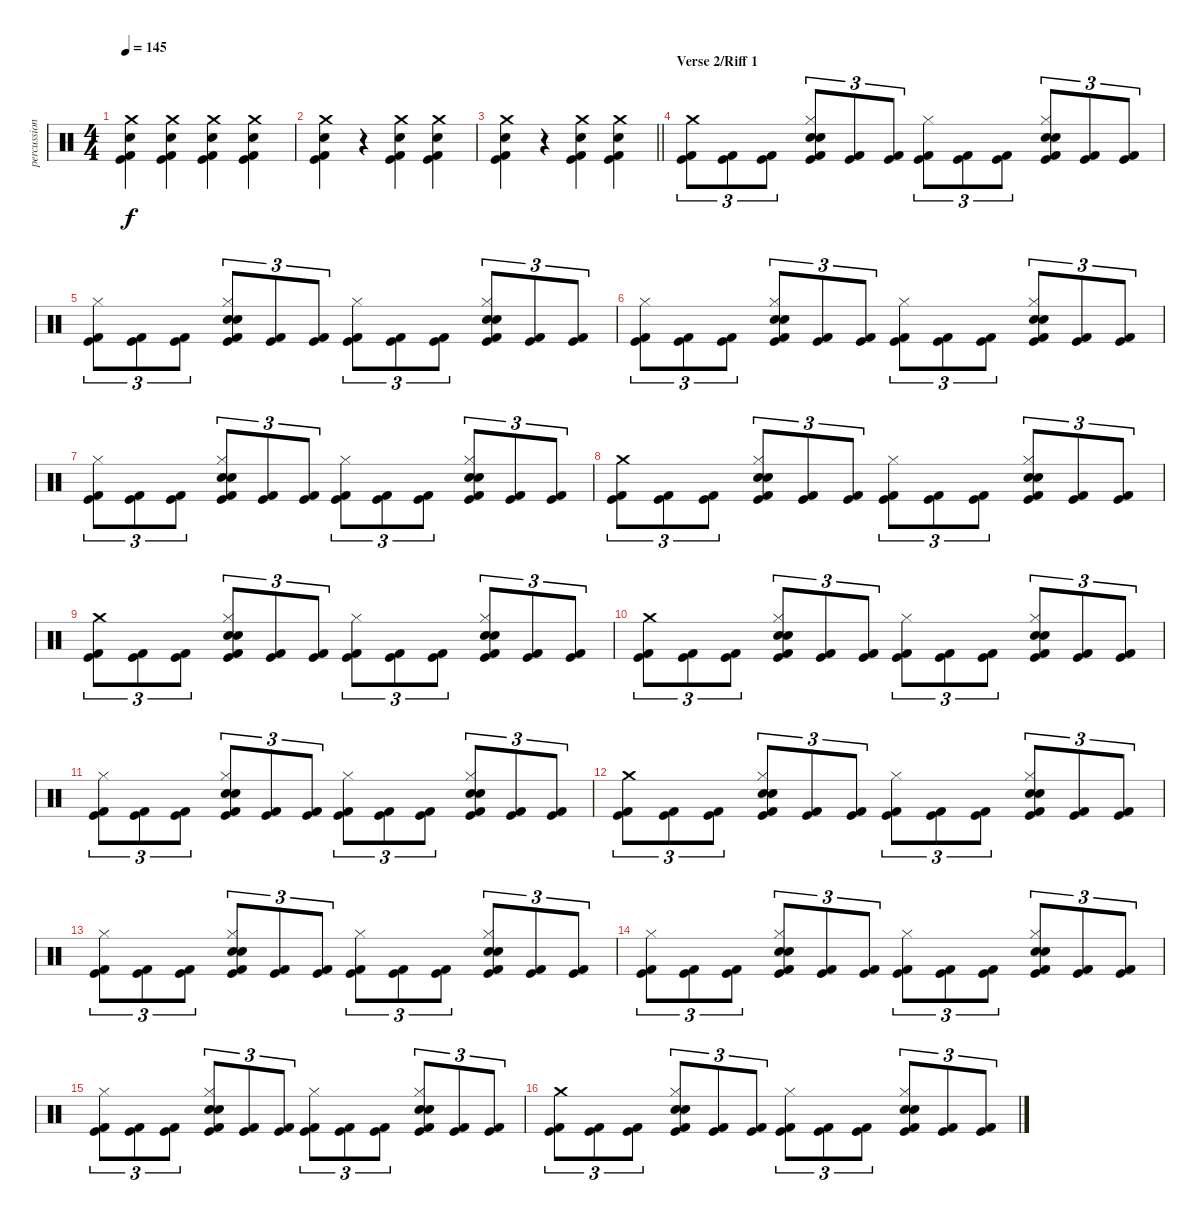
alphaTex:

\track ("percussion" "percussion") {instrument percussion}
\staff {score}
\articulation defaults
\ts (4 4)
\tempo 145
\clef neutral
\ks c
("Crash medium (hit)" "Electric Snare (hit)" "Kick (hit) 2" "Kick (hit)").4{dy f} ("Crash medium (hit)" "Electric Snare (hit)" "Kick (hit) 2" "Kick (hit)").4 ("Crash medium (hit)" "Electric Snare (hit)" "Kick (hit) 2" "Kick (hit)").4 ("Crash medium (hit)" "Electric Snare (hit)" "Kick (hit) 2" "Kick (hit)").4 |
("Crash medium (hit)" "Electric Snare (hit)" "Kick (hit)" "Kick (hit) 2").4 r.4 ("Crash medium (hit)" "Electric Snare (hit)" "Kick (hit)" "Kick (hit) 2").4 ("Crash medium (hit)" "Electric Snare (hit)" "Kick (hit)" "Kick (hit) 2").4 |
\barLineRight lightlight
("Crash medium (hit)" "Electric Snare (hit)" "Kick (hit)" "Kick (hit) 2").4 r.4 ("Crash medium (hit)" "Electric Snare (hit)" "Kick (hit) 2" "Kick (hit)").4 ("Crash medium (hit)" "Electric Snare (hit)" "Kick (hit) 2" "Kick (hit)").4 |
\section ("" "Verse 2/Riff 1")
("Crash medium (hit)" "Kick (hit)" "Kick (hit) 2").8{tu (3 2)} ("Kick (hit)" "Kick (hit) 2").8{tu (3 2)} ("Kick (hit)" "Kick (hit) 2").8{tu (3 2)} ("Hi-Hat (closed)" "Electric Snare (hit)" "Snare (hit) 2" "Kick (hit)" "Kick (hit) 2").8{tu (3 2)} ("Kick (hit)" "Kick (hit) 2").8{tu (3 2)} ("Kick (hit)" "Kick (hit) 2").8{tu (3 2)} ("Hi-Hat (closed)" "Kick (hit)" "Kick (hit) 2").8{tu (3 2)} ("Kick (hit)" "Kick (hit) 2").8{tu (3 2)} ("Kick (hit)" "Kick (hit) 2").8{tu (3 2)} ("Hi-Hat (closed)" "Electric Snare (hit)" "Snare (hit) 2" "Kick (hit)" "Kick (hit) 2").8{tu (3 2)} ("Kick (hit)" "Kick (hit) 2").8{tu (3 2)} ("Kick (hit)" "Kick (hit) 2").8{tu (3 2)} |
("Hi-Hat (closed)" "Kick (hit)" "Kick (hit) 2").8{tu (3 2)} ("Kick (hit)" "Kick (hit) 2").8{tu (3 2)} ("Kick (hit)" "Kick (hit) 2").8{tu (3 2)} ("Hi-Hat (closed)" "Electric Snare (hit)" "Snare (hit) 2" "Kick (hit)" "Kick (hit) 2").8{tu (3 2)} ("Kick (hit)" "Kick (hit) 2").8{tu (3 2)} ("Kick (hit)" "Kick (hit) 2").8{tu (3 2)} ("Hi-Hat (closed)" "Kick (hit)" "Kick (hit) 2").8{tu (3 2)} ("Kick (hit)" "Kick (hit) 2").8{tu (3 2)} ("Kick (hit)" "Kick (hit) 2").8{tu (3 2)} ("Hi-Hat (closed)" "Electric Snare (hit)" "Snare (hit) 2" "Kick (hit)" "Kick (hit) 2").8{tu (3 2)} ("Kick (hit)" "Kick (hit) 2").8{tu (3 2)} ("Kick (hit)" "Kick (hit) 2").8{tu (3 2)} |
("Hi-Hat (closed)" "Kick (hit)" "Kick (hit) 2").8{tu (3 2)} ("Kick (hit)" "Kick (hit) 2").8{tu (3 2)} ("Kick (hit)" "Kick (hit) 2").8{tu (3 2)} ("Hi-Hat (closed)" "Electric Snare (hit)" "Snare (hit) 2" "Kick (hit)" "Kick (hit) 2").8{tu (3 2)} ("Kick (hit)" "Kick (hit) 2").8{tu (3 2)} ("Kick (hit)" "Kick (hit) 2").8{tu (3 2)} ("Hi-Hat (closed)" "Kick (hit)" "Kick (hit) 2").8{tu (3 2)} ("Kick (hit)" "Kick (hit) 2").8{tu (3 2)} ("Kick (hit)" "Kick (hit) 2").8{tu (3 2)} ("Hi-Hat (closed)" "Electric Snare (hit)" "Snare (hit) 2" "Kick (hit)" "Kick (hit) 2").8{tu (3 2)} ("Kick (hit)" "Kick (hit) 2").8{tu (3 2)} ("Kick (hit)" "Kick (hit) 2").8{tu (3 2)} |
("Hi-Hat (closed)" "Kick (hit)" "Kick (hit) 2").8{tu (3 2)} ("Kick (hit)" "Kick (hit) 2").8{tu (3 2)} ("Kick (hit)" "Kick (hit) 2").8{tu (3 2)} ("Hi-Hat (closed)" "Electric Snare (hit)" "Snare (hit) 2" "Kick (hit)" "Kick (hit) 2").8{tu (3 2)} ("Kick (hit)" "Kick (hit) 2").8{tu (3 2)} ("Kick (hit)" "Kick (hit) 2").8{tu (3 2)} ("Hi-Hat (closed)" "Kick (hit)" "Kick (hit) 2").8{tu (3 2)} ("Kick (hit)" "Kick (hit) 2").8{tu (3 2)} ("Kick (hit)" "Kick (hit) 2").8{tu (3 2)} ("Hi-Hat (closed)" "Electric Snare (hit)" "Snare (hit) 2" "Kick (hit)" "Kick (hit) 2").8{tu (3 2)} ("Kick (hit)" "Kick (hit) 2").8{tu (3 2)} ("Kick (hit)" "Kick (hit) 2").8{tu (3 2)} |
("Crash medium (hit)" "Kick (hit)" "Kick (hit) 2").8{tu (3 2)} ("Kick (hit)" "Kick (hit) 2").8{tu (3 2)} ("Kick (hit)" "Kick (hit) 2").8{tu (3 2)} ("Hi-Hat (closed)" "Electric Snare (hit)" "Snare (hit) 2" "Kick (hit)" "Kick (hit) 2").8{tu (3 2)} ("Kick (hit)" "Kick (hit) 2").8{tu (3 2)} ("Kick (hit)" "Kick (hit) 2").8{tu (3 2)} ("Hi-Hat (closed)" "Kick (hit)" "Kick (hit) 2").8{tu (3 2)} ("Kick (hit)" "Kick (hit) 2").8{tu (3 2)} ("Kick (hit)" "Kick (hit) 2").8{tu (3 2)} ("Hi-Hat (closed)" "Electric Snare (hit)" "Snare (hit) 2" "Kick (hit)" "Kick (hit) 2").8{tu (3 2)} ("Kick (hit)" "Kick (hit) 2").8{tu (3 2)} ("Kick (hit)" "Kick (hit) 2").8{tu (3 2)} |
("Crash medium (hit)" "Kick (hit)" "Kick (hit) 2").8{tu (3 2)} ("Kick (hit)" "Kick (hit) 2").8{tu (3 2)} ("Kick (hit)" "Kick (hit) 2").8{tu (3 2)} ("Hi-Hat (closed)" "Electric Snare (hit)" "Snare (hit) 2" "Kick (hit)" "Kick (hit) 2").8{tu (3 2)} ("Kick (hit)" "Kick (hit) 2").8{tu (3 2)} ("Kick (hit)" "Kick (hit) 2").8{tu (3 2)} ("Hi-Hat (closed)" "Kick (hit)" "Kick (hit) 2").8{tu (3 2)} ("Kick (hit)" "Kick (hit) 2").8{tu (3 2)} ("Kick (hit)" "Kick (hit) 2").8{tu (3 2)} ("Hi-Hat (closed)" "Electric Snare (hit)" "Snare (hit) 2" "Kick (hit)" "Kick (hit) 2").8{tu (3 2)} ("Kick (hit)" "Kick (hit) 2").8{tu (3 2)} ("Kick (hit)" "Kick (hit) 2").8{tu (3 2)} |
("Crash medium (hit)" "Kick (hit)" "Kick (hit) 2").8{tu (3 2)} ("Kick (hit)" "Kick (hit) 2").8{tu (3 2)} ("Kick (hit)" "Kick (hit) 2").8{tu (3 2)} ("Hi-Hat (closed)" "Electric Snare (hit)" "Snare (hit) 2" "Kick (hit)" "Kick (hit) 2").8{tu (3 2)} ("Kick (hit)" "Kick (hit) 2").8{tu (3 2)} ("Kick (hit)" "Kick (hit) 2").8{tu (3 2)} ("Hi-Hat (closed)" "Kick (hit)" "Kick (hit) 2").8{tu (3 2)} ("Kick (hit)" "Kick (hit) 2").8{tu (3 2)} ("Kick (hit)" "Kick (hit) 2").8{tu (3 2)} ("Hi-Hat (closed)" "Electric Snare (hit)" "Snare (hit) 2" "Kick (hit)" "Kick (hit) 2").8{tu (3 2)} ("Kick (hit)" "Kick (hit) 2").8{tu (3 2)} ("Kick (hit)" "Kick (hit) 2").8{tu (3 2)} |
("Hi-Hat (closed)" "Kick (hit)" "Kick (hit) 2").8{tu (3 2)} ("Kick (hit)" "Kick (hit) 2").8{tu (3 2)} ("Kick (hit)" "Kick (hit) 2").8{tu (3 2)} ("Hi-Hat (closed)" "Electric Snare (hit)" "Snare (hit) 2" "Kick (hit)" "Kick (hit) 2").8{tu (3 2)} ("Kick (hit)" "Kick (hit) 2").8{tu (3 2)} ("Kick (hit)" "Kick (hit) 2").8{tu (3 2)} ("Hi-Hat (closed)" "Kick (hit)" "Kick (hit) 2").8{tu (3 2)} ("Kick (hit)" "Kick (hit) 2").8{tu (3 2)} ("Kick (hit)" "Kick (hit) 2").8{tu (3 2)} ("Hi-Hat (closed)" "Electric Snare (hit)" "Snare (hit) 2" "Kick (hit)" "Kick (hit) 2").8{tu (3 2)} ("Kick (hit)" "Kick (hit) 2").8{tu (3 2)} ("Kick (hit)" "Kick (hit) 2").8{tu (3 2)} |
("Crash medium (hit)" "Kick (hit)" "Kick (hit) 2").8{tu (3 2)} ("Kick (hit)" "Kick (hit) 2").8{tu (3 2)} ("Kick (hit)" "Kick (hit) 2").8{tu (3 2)} ("Hi-Hat (closed)" "Electric Snare (hit)" "Snare (hit) 2" "Kick (hit)" "Kick (hit) 2").8{tu (3 2)} ("Kick (hit)" "Kick (hit) 2").8{tu (3 2)} ("Kick (hit)" "Kick (hit) 2").8{tu (3 2)} ("Hi-Hat (closed)" "Kick (hit)" "Kick (hit) 2").8{tu (3 2)} ("Kick (hit)" "Kick (hit) 2").8{tu (3 2)} ("Kick (hit)" "Kick (hit) 2").8{tu (3 2)} ("Hi-Hat (closed)" "Electric Snare (hit)" "Snare (hit) 2" "Kick (hit)" "Kick (hit) 2").8{tu (3 2)} ("Kick (hit)" "Kick (hit) 2").8{tu (3 2)} ("Kick (hit)" "Kick (hit) 2").8{tu (3 2)} |
("Hi-Hat (closed)" "Kick (hit)" "Kick (hit) 2").8{tu (3 2)} ("Kick (hit)" "Kick (hit) 2").8{tu (3 2)} ("Kick (hit)" "Kick (hit) 2").8{tu (3 2)} ("Hi-Hat (closed)" "Electric Snare (hit)" "Snare (hit) 2" "Kick (hit)" "Kick (hit) 2").8{tu (3 2)} ("Kick (hit)" "Kick (hit) 2").8{tu (3 2)} ("Kick (hit)" "Kick (hit) 2").8{tu (3 2)} ("Hi-Hat (closed)" "Kick (hit)" "Kick (hit) 2").8{tu (3 2)} ("Kick (hit)" "Kick (hit) 2").8{tu (3 2)} ("Kick (hit)" "Kick (hit) 2").8{tu (3 2)} ("Hi-Hat (closed)" "Electric Snare (hit)" "Snare (hit) 2" "Kick (hit)" "Kick (hit) 2").8{tu (3 2)} ("Kick (hit)" "Kick (hit) 2").8{tu (3 2)} ("Kick (hit)" "Kick (hit) 2").8{tu (3 2)} |
("Hi-Hat (closed)" "Kick (hit)" "Kick (hit) 2").8{tu (3 2)} ("Kick (hit)" "Kick (hit) 2").8{tu (3 2)} ("Kick (hit)" "Kick (hit) 2").8{tu (3 2)} ("Hi-Hat (closed)" "Electric Snare (hit)" "Snare (hit) 2" "Kick (hit)" "Kick (hit) 2").8{tu (3 2)} ("Kick (hit)" "Kick (hit) 2").8{tu (3 2)} ("Kick (hit)" "Kick (hit) 2").8{tu (3 2)} ("Hi-Hat (closed)" "Kick (hit)" "Kick (hit) 2").8{tu (3 2)} ("Kick (hit)" "Kick (hit) 2").8{tu (3 2)} ("Kick (hit)" "Kick (hit) 2").8{tu (3 2)} ("Hi-Hat (closed)" "Electric Snare (hit)" "Snare (hit) 2" "Kick (hit)" "Kick (hit) 2").8{tu (3 2)} ("Kick (hit)" "Kick (hit) 2").8{tu (3 2)} ("Kick (hit)" "Kick (hit) 2").8{tu (3 2)} |
("Hi-Hat (closed)" "Kick (hit)" "Kick (hit) 2").8{tu (3 2)} ("Kick (hit)" "Kick (hit) 2").8{tu (3 2)} ("Kick (hit)" "Kick (hit) 2").8{tu (3 2)} ("Hi-Hat (closed)" "Electric Snare (hit)" "Snare (hit) 2" "Kick (hit)" "Kick (hit) 2").8{tu (3 2)} ("Kick (hit)" "Kick (hit) 2").8{tu (3 2)} ("Kick (hit)" "Kick (hit) 2").8{tu (3 2)} ("Hi-Hat (closed)" "Kick (hit)" "Kick (hit) 2").8{tu (3 2)} ("Kick (hit)" "Kick (hit) 2").8{tu (3 2)} ("Kick (hit)" "Kick (hit) 2").8{tu (3 2)} ("Hi-Hat (closed)" "Electric Snare (hit)" "Snare (hit) 2" "Kick (hit)" "Kick (hit) 2").8{tu (3 2)} ("Kick (hit)" "Kick (hit) 2").8{tu (3 2)} ("Kick (hit)" "Kick (hit) 2").8{tu (3 2)} |
("Crash medium (hit)" "Kick (hit)" "Kick (hit) 2").8{tu (3 2)} ("Kick (hit)" "Kick (hit) 2").8{tu (3 2)} ("Kick (hit)" "Kick (hit) 2").8{tu (3 2)} ("Hi-Hat (closed)" "Electric Snare (hit)" "Snare (hit) 2" "Kick (hit)" "Kick (hit) 2").8{tu (3 2)} ("Kick (hit)" "Kick (hit) 2").8{tu (3 2)} ("Kick (hit)" "Kick (hit) 2").8{tu (3 2)} ("Hi-Hat (closed)" "Kick (hit)" "Kick (hit) 2").8{tu (3 2)} ("Kick (hit)" "Kick (hit) 2").8{tu (3 2)} ("Kick (hit)" "Kick (hit) 2").8{tu (3 2)} ("Hi-Hat (closed)" "Electric Snare (hit)" "Snare (hit) 2" "Kick (hit)" "Kick (hit) 2").8{tu (3 2)} ("Kick (hit)" "Kick (hit) 2").8{tu (3 2)} ("Kick (hit)" "Kick (hit) 2").8{tu (3 2)}
